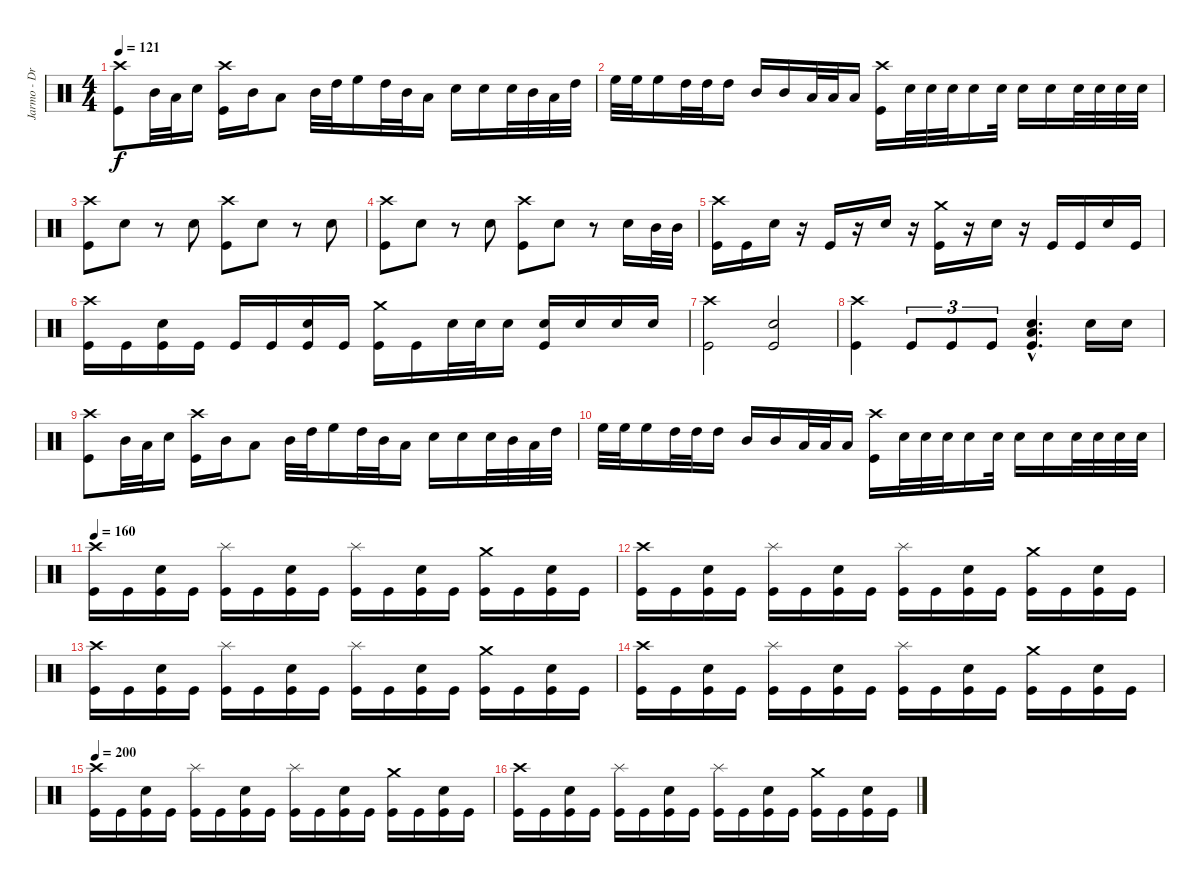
\track ("Jarmo - Drums" "Jarmo - Dr") {instrument percussion}
\staff {score}
\articulation defaults
\ts (4 4)
\tempo 121
\clef neutral
\ks c
("Kick (hit)" "Crash high (hit)").8{dy f} "Mid Tom (hit)".32 "Low Tom (hit)".32 "Electric Snare (hit)".16 ("Kick (hit)" "Crash high (hit)").16 "Mid Tom (hit)".16 "Low Tom (hit)".8 "Mid Tom (hit)".32 "High Tom (hit)".32 "High Floor Tom (hit)".16 "High Tom (hit)".32 "Mid Tom (hit)".32 "Low Tom (hit)".16 "Electric Snare (hit)".16 "Electric Snare (hit)".16 "Electric Snare (hit)".32 "Mid Tom (hit)".32 "Low Tom (hit)".32 "High Tom (hit)".32 |
"High Floor Tom (hit)".32 "High Floor Tom (hit)".32 "High Floor Tom (hit)".16 "High Tom (hit)".32 "High Tom (hit)".32 "High Tom (hit)".16 "Mid Tom (hit)".16 "Mid Tom (hit)".16 "Low Tom (hit)".32 "Low Tom (hit)".32 "Low Tom (hit)".16 ("Kick (hit)" "Crash high (hit)").16 "Electric Snare (hit)".32 "Electric Snare (hit)".32 "Electric Snare (hit)".32 "Electric Snare (hit)".16 "Electric Snare (hit)".32 "Electric Snare (hit)".16 "Electric Snare (hit)".16 "Electric Snare (hit)".32 "Electric Snare (hit)".32 "Electric Snare (hit)".32 "Electric Snare (hit)".32 |
("Kick (hit)" "Crash high (hit)").8 "Electric Snare (hit)".8 r.8 "Electric Snare (hit)".8 ("Kick (hit)" "Crash high (hit)").8 "Electric Snare (hit)".8 r.8 "Electric Snare (hit)".8 |
("Kick (hit)" "Crash high (hit)").8 "Electric Snare (hit)".8 r.8 "Electric Snare (hit)".8 ("Kick (hit)" "Crash high (hit)").8 "Electric Snare (hit)".8 r.8 "Electric Snare (hit)".16 "Mid Tom (hit)".32 "Mid Tom (hit)".32 |
("Kick (hit)" "Crash high (hit)").16 "Kick (hit)".16 "Electric Snare (hit)".16 r.16 "Kick (hit)".16 r.16 "Electric Snare (hit)".16 r.16 ("Kick (hit)" "Crash medium (hit)").16 r.16 "Electric Snare (hit)".16 r.16 "Kick (hit)".16 "Kick (hit)".16 "Electric Snare (hit)".16 "Kick (hit)".16 |
("Kick (hit)" "Crash high (hit)").16 "Kick (hit)".16 ("Kick (hit)" "Electric Snare (hit)").16 "Kick (hit)".16 "Kick (hit)".16 "Kick (hit)".16 ("Kick (hit)" "Electric Snare (hit)").16 "Kick (hit)".16 ("Kick (hit)" "Crash medium (hit)").16 "Kick (hit)".16 "Electric Snare (hit)".32 "Electric Snare (hit)".32 "Electric Snare (hit)".16 ("Kick (hit)" "Electric Snare (hit)").16 "Electric Snare (hit)".16 "Electric Snare (hit)".16 "Electric Snare (hit)".16 |
("Kick (hit)" "Crash high (hit)").2 ("Kick (hit)" "Electric Snare (hit)").2 |
("Kick (hit)" "Crash high (hit)").4 "Kick (hit)".8{tu (3 2)} "Kick (hit)".8{tu (3 2)} "Kick (hit)".8{tu (3 2)} ("Kick (hit)"{hac} "Electric Snare (hit)"{hac} "Low Tom (hit)"{hac}).4{d} "Electric Snare (hit)".16 "Electric Snare (hit)".16 |
("Kick (hit)" "Crash high (hit)").8 "Mid Tom (hit)".32 "Low Tom (hit)".32 "Electric Snare (hit)".16 ("Kick (hit)" "Crash high (hit)").16 "Mid Tom (hit)".16 "Low Tom (hit)".8 "Mid Tom (hit)".32 "High Tom (hit)".32 "High Floor Tom (hit)".16 "High Tom (hit)".32 "Mid Tom (hit)".32 "Low Tom (hit)".16 "Electric Snare (hit)".16 "Electric Snare (hit)".16 "Electric Snare (hit)".32 "Mid Tom (hit)".32 "Low Tom (hit)".32 "High Tom (hit)".32 |
"High Floor Tom (hit)".32 "High Floor Tom (hit)".32 "High Floor Tom (hit)".16 "High Tom (hit)".32 "High Tom (hit)".32 "High Tom (hit)".16 "Mid Tom (hit)".16 "Mid Tom (hit)".16 "Low Tom (hit)".32 "Low Tom (hit)".32 "Low Tom (hit)".16 ("Kick (hit)" "Crash high (hit)").16 "Electric Snare (hit)".32 "Electric Snare (hit)".32 "Electric Snare (hit)".32 "Electric Snare (hit)".16 "Electric Snare (hit)".32 "Electric Snare (hit)".16 "Electric Snare (hit)".16 "Electric Snare (hit)".32 "Electric Snare (hit)".32 "Electric Snare (hit)".32 "Electric Snare (hit)".32 |
\tempo 160
("Kick (hit)" "Crash high (hit)").16 "Kick (hit)".16 ("Kick (hit)" "Electric Snare (hit)").16 "Kick (hit)".16 ("Kick (hit)" "Splash (hit)").16 "Kick (hit)".16 ("Kick (hit)" "Electric Snare (hit)").16 "Kick (hit)".16 ("Kick (hit)" "Splash (hit)").16 "Kick (hit)".16 ("Kick (hit)" "Electric Snare (hit)").16 "Kick (hit)".16 ("Kick (hit)" "Crash medium (hit)").16 "Kick (hit)".16 ("Kick (hit)" "Electric Snare (hit)").16 "Kick (hit)".16 |
("Kick (hit)" "Crash high (hit)").16 "Kick (hit)".16 ("Kick (hit)" "Electric Snare (hit)").16 "Kick (hit)".16 ("Kick (hit)" "Splash (hit)").16 "Kick (hit)".16 ("Kick (hit)" "Electric Snare (hit)").16 "Kick (hit)".16 ("Kick (hit)" "Splash (hit)").16 "Kick (hit)".16 ("Kick (hit)" "Electric Snare (hit)").16 "Kick (hit)".16 ("Kick (hit)" "Crash medium (hit)").16 "Kick (hit)".16 ("Kick (hit)" "Electric Snare (hit)").16 "Kick (hit)".16 |
("Kick (hit)" "Crash high (hit)").16 "Kick (hit)".16 ("Kick (hit)" "Electric Snare (hit)").16 "Kick (hit)".16 ("Kick (hit)" "Splash (hit)").16 "Kick (hit)".16 ("Kick (hit)" "Electric Snare (hit)").16 "Kick (hit)".16 ("Kick (hit)" "Splash (hit)").16 "Kick (hit)".16 ("Kick (hit)" "Electric Snare (hit)").16 "Kick (hit)".16 ("Kick (hit)" "Crash medium (hit)").16 "Kick (hit)".16 ("Kick (hit)" "Electric Snare (hit)").16 "Kick (hit)".16 |
("Kick (hit)" "Crash high (hit)").16 "Kick (hit)".16 ("Kick (hit)" "Electric Snare (hit)").16 "Kick (hit)".16 ("Kick (hit)" "Splash (hit)").16 "Kick (hit)".16 ("Kick (hit)" "Electric Snare (hit)").16 "Kick (hit)".16 ("Kick (hit)" "Splash (hit)").16 "Kick (hit)".16 ("Kick (hit)" "Electric Snare (hit)").16 "Kick (hit)".16 ("Kick (hit)" "Crash medium (hit)").16 "Kick (hit)".16 ("Kick (hit)" "Electric Snare (hit)").16 "Kick (hit)".16 |
\tempo 200
("Kick (hit)" "Crash high (hit)").16 "Kick (hit)".16 ("Kick (hit)" "Electric Snare (hit)").16 "Kick (hit)".16 ("Kick (hit)" "Splash (hit)").16 "Kick (hit)".16 ("Kick (hit)" "Electric Snare (hit)").16 "Kick (hit)".16 ("Kick (hit)" "Splash (hit)").16 "Kick (hit)".16 ("Kick (hit)" "Electric Snare (hit)").16 "Kick (hit)".16 ("Kick (hit)" "Crash medium (hit)").16 "Kick (hit)".16 ("Kick (hit)" "Electric Snare (hit)").16 "Kick (hit)".16 |
("Kick (hit)" "Crash high (hit)").16 "Kick (hit)".16 ("Kick (hit)" "Electric Snare (hit)").16 "Kick (hit)".16 ("Kick (hit)" "Splash (hit)").16 "Kick (hit)".16 ("Kick (hit)" "Electric Snare (hit)").16 "Kick (hit)".16 ("Kick (hit)" "Splash (hit)").16 "Kick (hit)".16 ("Kick (hit)" "Electric Snare (hit)").16 "Kick (hit)".16 ("Kick (hit)" "Crash medium (hit)").16 "Kick (hit)".16 ("Kick (hit)" "Electric Snare (hit)").16 "Kick (hit)".16
